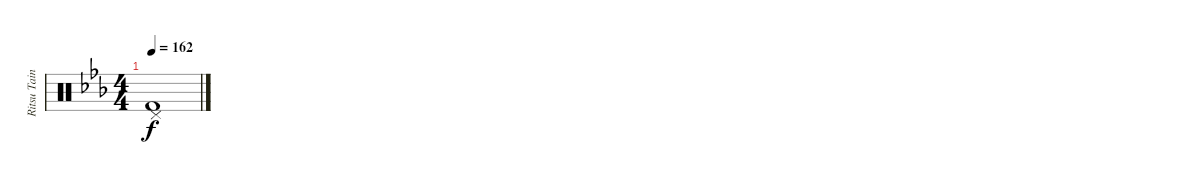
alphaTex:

\track ("Ritsu Tainaka" "Ritsu Tain") {instrument percussion}
\staff {score}
\articulation defaults
\ts (4 4)
\tempo 162
\clef neutral
\ks eb
("Pedal Hi-Hat (hit)" "Kick (hit) 2").1{dy f}
